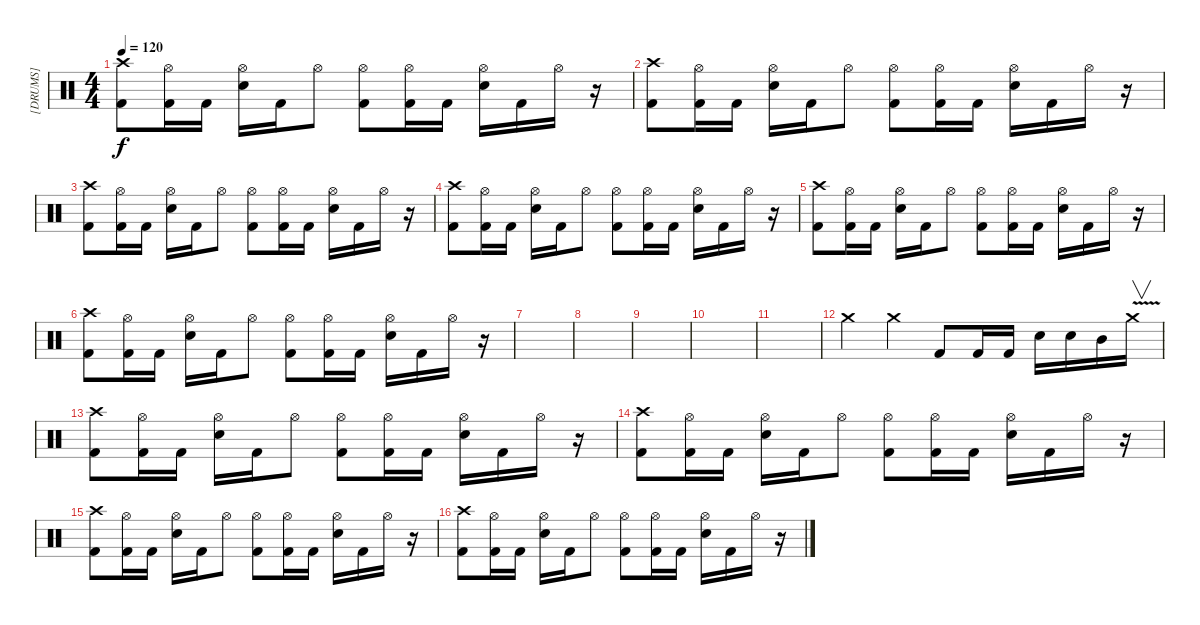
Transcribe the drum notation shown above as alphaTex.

\track ("[DRUMS]" "[DRUMS]") {instrument percussion}
\staff {score}
\articulation defaults
\ts (4 4)
\tempo 120
\clef neutral
\ks c
("Crash high (hit)" "Kick (hit) 2").8{dy f} ("Hi-Hat (open)" "Kick (hit) 2").16 "Kick (hit) 2".16 ("Hi-Hat (open)" "Electric Snare (hit)").16 "Kick (hit) 2".16 "Hi-Hat (open)".8 ("Hi-Hat (open)" "Kick (hit) 2").8 ("Hi-Hat (open)" "Kick (hit) 2").16 "Kick (hit) 2".16 ("Hi-Hat (open)" "Electric Snare (hit)").16 "Kick (hit) 2".16 "Hi-Hat (open)".16 r.16 |
("Crash high (hit)" "Kick (hit) 2").8 ("Hi-Hat (open)" "Kick (hit) 2").16 "Kick (hit) 2".16 ("Hi-Hat (open)" "Electric Snare (hit)").16 "Kick (hit) 2".16 "Hi-Hat (open)".8 ("Hi-Hat (open)" "Kick (hit) 2").8 ("Hi-Hat (open)" "Kick (hit) 2").16 "Kick (hit) 2".16 ("Hi-Hat (open)" "Electric Snare (hit)").16 "Kick (hit) 2".16 "Hi-Hat (open)".16 r.16 |
("Crash high (hit)" "Kick (hit) 2").8 ("Hi-Hat (open)" "Kick (hit) 2").16 "Kick (hit) 2".16 ("Hi-Hat (open)" "Electric Snare (hit)").16 "Kick (hit) 2".16 "Hi-Hat (open)".8 ("Hi-Hat (open)" "Kick (hit) 2").8 ("Hi-Hat (open)" "Kick (hit) 2").16 "Kick (hit) 2".16 ("Hi-Hat (open)" "Electric Snare (hit)").16 "Kick (hit) 2".16 "Hi-Hat (open)".16 r.16 |
("Crash high (hit)" "Kick (hit) 2").8 ("Hi-Hat (open)" "Kick (hit) 2").16 "Kick (hit) 2".16 ("Hi-Hat (open)" "Electric Snare (hit)").16 "Kick (hit) 2".16 "Hi-Hat (open)".8 ("Hi-Hat (open)" "Kick (hit) 2").8 ("Hi-Hat (open)" "Kick (hit) 2").16 "Kick (hit) 2".16 ("Hi-Hat (open)" "Electric Snare (hit)").16 "Kick (hit) 2".16 "Hi-Hat (open)".16 r.16 |
("Crash high (hit)" "Kick (hit) 2").8 ("Hi-Hat (open)" "Kick (hit) 2").16 "Kick (hit) 2".16 ("Hi-Hat (open)" "Electric Snare (hit)").16 "Kick (hit) 2".16 "Hi-Hat (open)".8 ("Hi-Hat (open)" "Kick (hit) 2").8 ("Hi-Hat (open)" "Kick (hit) 2").16 "Kick (hit) 2".16 ("Hi-Hat (open)" "Electric Snare (hit)").16 "Kick (hit) 2".16 "Hi-Hat (open)".16 r.16 |
("Crash high (hit)" "Kick (hit) 2").8 ("Hi-Hat (open)" "Kick (hit) 2").16 "Kick (hit) 2".16 ("Hi-Hat (open)" "Electric Snare (hit)").16 "Kick (hit) 2".16 "Hi-Hat (open)".8 ("Hi-Hat (open)" "Kick (hit) 2").8 ("Hi-Hat (open)" "Kick (hit) 2").16 "Kick (hit) 2".16 ("Hi-Hat (open)" "Electric Snare (hit)").16 "Kick (hit) 2".16 "Hi-Hat (open)".16 r.16 |
|
|
|
|
|
"Crash medium (hit)".4 "Crash medium (hit)".4 "Kick (hit) 2".8 "Kick (hit) 2".16 "Kick (hit) 2".16 "Electric Snare (hit)".16 "Electric Snare (hit)".16 "Mid Tom (hit)".16 "Crash medium (hit)"{v}.16{v} |
("Crash high (hit)" "Kick (hit) 2").8 ("Hi-Hat (open)" "Kick (hit) 2").16 "Kick (hit) 2".16 ("Hi-Hat (open)" "Electric Snare (hit)").16 "Kick (hit) 2".16 "Hi-Hat (open)".8 ("Hi-Hat (open)" "Kick (hit) 2").8 ("Hi-Hat (open)" "Kick (hit) 2").16 "Kick (hit) 2".16 ("Hi-Hat (open)" "Electric Snare (hit)").16 "Kick (hit) 2".16 "Hi-Hat (open)".16 r.16 |
("Crash high (hit)" "Kick (hit) 2").8 ("Hi-Hat (open)" "Kick (hit) 2").16 "Kick (hit) 2".16 ("Hi-Hat (open)" "Electric Snare (hit)").16 "Kick (hit) 2".16 "Hi-Hat (open)".8 ("Hi-Hat (open)" "Kick (hit) 2").8 ("Hi-Hat (open)" "Kick (hit) 2").16 "Kick (hit) 2".16 ("Hi-Hat (open)" "Electric Snare (hit)").16 "Kick (hit) 2".16 "Hi-Hat (open)".16 r.16 |
("Crash high (hit)" "Kick (hit) 2").8 ("Hi-Hat (open)" "Kick (hit) 2").16 "Kick (hit) 2".16 ("Hi-Hat (open)" "Electric Snare (hit)").16 "Kick (hit) 2".16 "Hi-Hat (open)".8 ("Hi-Hat (open)" "Kick (hit) 2").8 ("Hi-Hat (open)" "Kick (hit) 2").16 "Kick (hit) 2".16 ("Hi-Hat (open)" "Electric Snare (hit)").16 "Kick (hit) 2".16 "Hi-Hat (open)".16 r.16 |
("Crash high (hit)" "Kick (hit) 2").8 ("Hi-Hat (open)" "Kick (hit) 2").16 "Kick (hit) 2".16 ("Hi-Hat (open)" "Electric Snare (hit)").16 "Kick (hit) 2".16 "Hi-Hat (open)".8 ("Hi-Hat (open)" "Kick (hit) 2").8 ("Hi-Hat (open)" "Kick (hit) 2").16 "Kick (hit) 2".16 ("Hi-Hat (open)" "Electric Snare (hit)").16 "Kick (hit) 2".16 "Hi-Hat (open)".16 r.16
